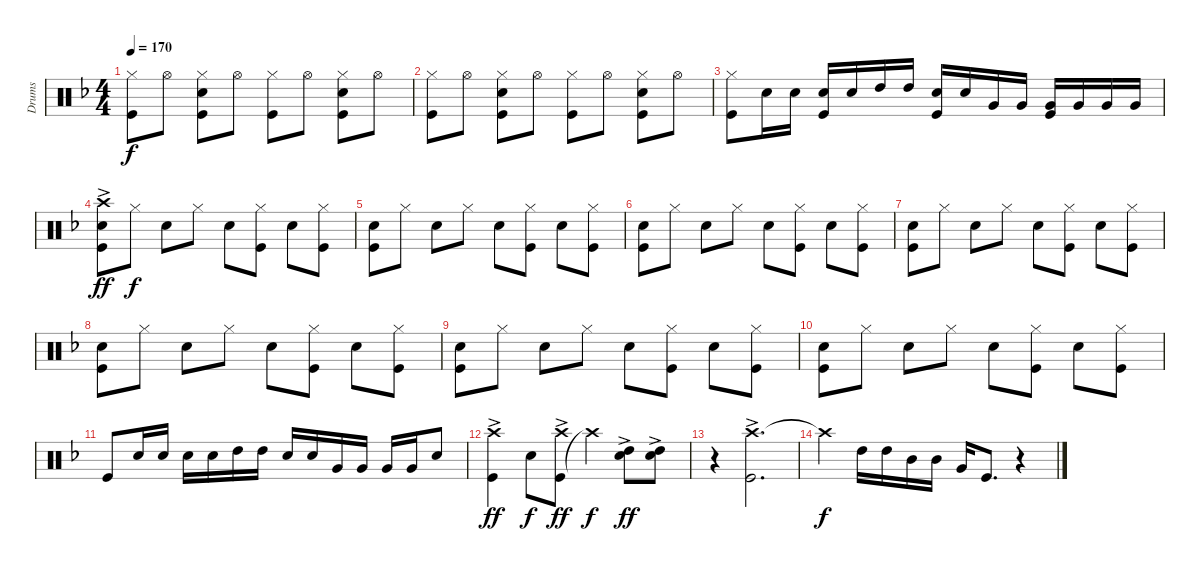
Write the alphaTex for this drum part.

\track ("Drums" "Drums") {instrument percussion}
\staff {score}
\articulation defaults
\ts (4 4)
\tempo 170
\clef neutral
\ks f
("Hi-Hat (closed)" "Kick (hit)").8{dy f} "Hi-Hat (open)".8 ("Snare (hit) 2" "Kick (hit)" "Hi-Hat (closed)").8 "Hi-Hat (open)".8 ("Hi-Hat (closed)" "Kick (hit)").8 "Hi-Hat (open)".8 ("Snare (hit) 2" "Kick (hit)" "Hi-Hat (closed)").8 "Hi-Hat (open)".8 |
("Hi-Hat (closed)" "Kick (hit)").8 "Hi-Hat (open)".8 ("Snare (hit) 2" "Kick (hit)" "Hi-Hat (closed)").8 "Hi-Hat (open)".8 ("Hi-Hat (closed)" "Kick (hit)").8 "Hi-Hat (open)".8 ("Snare (hit) 2" "Kick (hit)" "Hi-Hat (closed)").8 "Hi-Hat (open)".8 |
("Hi-Hat (closed)" "Kick (hit)").8 "Snare (hit) 2".16 "Snare (hit) 2".16 ("Kick (hit)" "Snare (hit) 2").16 "Snare (hit) 2".16 "High Tom (hit)".16 "High Tom (hit)".16 ("Kick (hit)" "Snare (hit) 2").16 "Snare (hit) 2".16 "Very Low Tom (hit)".16 "Very Low Tom (hit)".16 ("Kick (hit)" "Very Low Tom (hit)").16 "Very Low Tom (hit)".16 "Very Low Tom (hit)".16 "Very Low Tom (hit)".16 |
("Crash high (hit)"{ac} "Kick (hit)" "Snare (hit) 2").8{dy ff} "Hi-Hat (closed)".8{dy f} "Snare (hit) 2".8 "Hi-Hat (closed)".8 "Snare (hit) 2".8 ("Hi-Hat (closed)" "Kick (hit)").8 "Snare (hit) 2".8 ("Hi-Hat (closed)" "Kick (hit)").8 |
("Snare (hit) 2" "Kick (hit)").8 "Hi-Hat (closed)".8 "Snare (hit) 2".8 "Hi-Hat (closed)".8 "Snare (hit) 2".8 ("Hi-Hat (closed)" "Kick (hit)").8 "Snare (hit) 2".8 ("Hi-Hat (closed)" "Kick (hit)").8 |
("Snare (hit) 2" "Kick (hit)").8 "Hi-Hat (closed)".8 "Snare (hit) 2".8 "Hi-Hat (closed)".8 "Snare (hit) 2".8 ("Hi-Hat (closed)" "Kick (hit)").8 "Snare (hit) 2".8 ("Hi-Hat (closed)" "Kick (hit)").8 |
("Snare (hit) 2" "Kick (hit)").8 "Hi-Hat (closed)".8 "Snare (hit) 2".8 "Hi-Hat (closed)".8 "Snare (hit) 2".8 ("Hi-Hat (closed)" "Kick (hit)").8 "Snare (hit) 2".8 ("Hi-Hat (closed)" "Kick (hit)").8 |
("Snare (hit) 2" "Kick (hit)").8 "Hi-Hat (closed)".8 "Snare (hit) 2".8 "Hi-Hat (closed)".8 "Snare (hit) 2".8 ("Hi-Hat (closed)" "Kick (hit)").8 "Snare (hit) 2".8 ("Hi-Hat (closed)" "Kick (hit)").8 |
("Snare (hit) 2" "Kick (hit)").8 "Hi-Hat (closed)".8 "Snare (hit) 2".8 "Hi-Hat (closed)".8 "Snare (hit) 2".8 ("Hi-Hat (closed)" "Kick (hit)").8 "Snare (hit) 2".8 ("Hi-Hat (closed)" "Kick (hit)").8 |
("Snare (hit) 2" "Kick (hit)").8 "Hi-Hat (closed)".8 "Snare (hit) 2".8 "Hi-Hat (closed)".8 "Snare (hit) 2".8 ("Hi-Hat (closed)" "Kick (hit)").8 "Snare (hit) 2".8 ("Hi-Hat (closed)" "Kick (hit)").8 |
"Kick (hit)".8 "Snare (hit) 2".16 "Snare (hit) 2".16 "Snare (hit) 2".16 "Snare (hit) 2".16 "High Tom (hit)".16 "High Tom (hit)".16 "Snare (hit) 2".16 "Snare (hit) 2".16 "Very Low Tom (hit)".16 "Very Low Tom (hit)".16 "Very Low Tom (hit)".16 "Very Low Tom (hit)".16 "Snare (hit) 2".8 |
("Crash high (hit)"{ac} "Kick (hit)").4{dy ff} "Snare (hit) 2".8{dy f} ("Kick (hit)" "Crash high (hit)"{ac}).8{dy ff} "Crash high (hit)"{t}.4{dy f} ("Snare (hit) 2"{ac} "High Tom (hit)"{ac}).8{dy ff} ("Snare (hit) 2"{ac} "High Tom (hit)"{ac}).8 |
r.4 ("Crash high (hit)"{ac} "Kick (hit)").2{d} |
"Crash high (hit)"{t}.4{dy f} "High Tom (hit)".16 "High Tom (hit)".16 "Mid Tom (hit)".16 "Mid Tom (hit)".16 "Very Low Tom (hit)".16 "Kick (hit)".8{d} r.4
